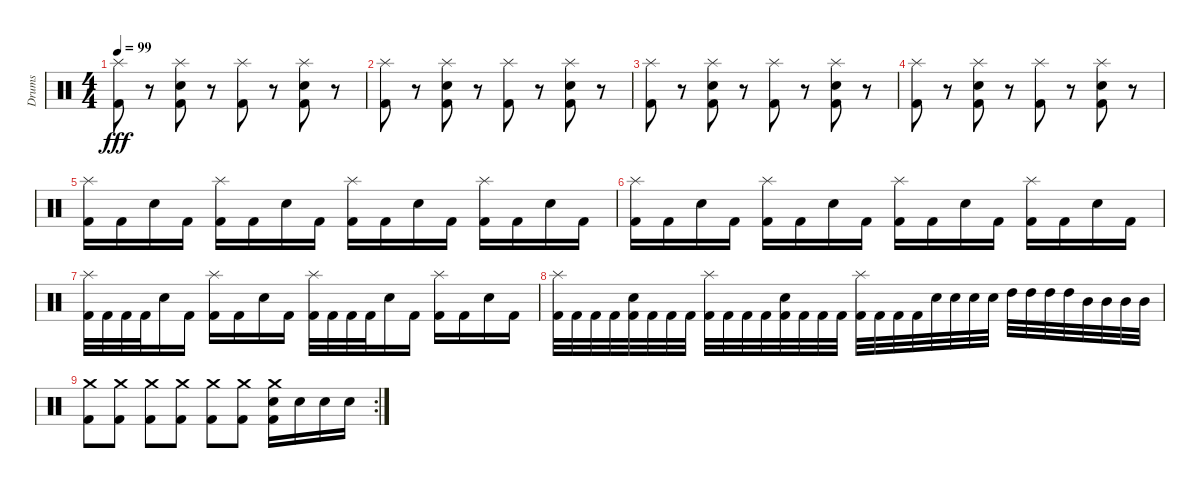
\track ("Drums" "Drums") {instrument percussion}
\staff {score}
\articulation defaults
\ts (4 4)
\tempo 99
\clef neutral
\ks c
("Splash (hit)" "Kick (hit) 2").8{dy fff} r.8 ("Splash (hit)" "Snare (hit) 2" "Kick (hit) 2").8 r.8 ("Splash (hit)" "Kick (hit) 2").8 r.8 ("Splash (hit)" "Snare (hit) 2" "Kick (hit) 2").8 r.8 |
("Splash (hit)" "Kick (hit) 2").8 r.8 ("Splash (hit)" "Snare (hit) 2" "Kick (hit) 2").8 r.8 ("Splash (hit)" "Kick (hit) 2").8 r.8 ("Splash (hit)" "Snare (hit) 2" "Kick (hit) 2").8 r.8 |
("Splash (hit)" "Kick (hit) 2").8 r.8 ("Splash (hit)" "Snare (hit) 2" "Kick (hit) 2").8 r.8 ("Splash (hit)" "Kick (hit) 2").8 r.8 ("Splash (hit)" "Snare (hit) 2" "Kick (hit) 2").8 r.8 |
("Splash (hit)" "Kick (hit) 2").8 r.8 ("Splash (hit)" "Snare (hit) 2" "Kick (hit) 2").8 r.8 ("Splash (hit)" "Kick (hit) 2").8 r.8 ("Splash (hit)" "Snare (hit) 2" "Kick (hit) 2").8 r.8 |
("Splash (hit)" "Kick (hit) 2").16 "Kick (hit) 2".16 "Snare (hit) 2".16 "Kick (hit) 2".16 ("Splash (hit)" "Kick (hit) 2").16 "Kick (hit) 2".16 "Snare (hit) 2".16 "Kick (hit) 2".16 ("Splash (hit)" "Kick (hit) 2").16 "Kick (hit) 2".16 "Snare (hit) 2".16 "Kick (hit) 2".16 ("Splash (hit)" "Kick (hit) 2").16 "Kick (hit) 2".16 "Snare (hit) 2".16 "Kick (hit) 2".16 |
("Splash (hit)" "Kick (hit) 2").16 "Kick (hit) 2".16 "Snare (hit) 2".16 "Kick (hit) 2".16 ("Splash (hit)" "Kick (hit) 2").16 "Kick (hit) 2".16 "Snare (hit) 2".16 "Kick (hit) 2".16 ("Splash (hit)" "Kick (hit) 2").16 "Kick (hit) 2".16 "Snare (hit) 2".16 "Kick (hit) 2".16 ("Splash (hit)" "Kick (hit) 2").16 "Kick (hit) 2".16 "Snare (hit) 2".16 "Kick (hit) 2".16 |
("Splash (hit)" "Kick (hit) 2").32 "Kick (hit) 2".32 "Kick (hit) 2".32 "Kick (hit) 2".32 "Snare (hit) 2".16 "Kick (hit) 2".16 ("Splash (hit)" "Kick (hit) 2").16 "Kick (hit) 2".16 "Snare (hit) 2".16 "Kick (hit) 2".16 ("Splash (hit)" "Kick (hit) 2").32 "Kick (hit) 2".32 "Kick (hit) 2".32 "Kick (hit) 2".32 "Snare (hit) 2".16 "Kick (hit) 2".16 ("Splash (hit)" "Kick (hit) 2").16 "Kick (hit) 2".16 "Snare (hit) 2".16 "Kick (hit) 2".16 |
("Splash (hit)" "Kick (hit) 2").32 "Kick (hit) 2".32 "Kick (hit) 2".32 "Kick (hit) 2".32 ("Snare (hit) 2" "Kick (hit) 2").32 "Kick (hit) 2".32 "Kick (hit) 2".32 "Kick (hit) 2".32 ("Splash (hit)" "Kick (hit) 2").32 "Kick (hit) 2".32 "Kick (hit) 2".32 "Kick (hit) 2".32 ("Snare (hit) 2" "Kick (hit) 2").32 "Kick (hit) 2".32 "Kick (hit) 2".32 "Kick (hit) 2".32 ("Splash (hit)" "Kick (hit) 2").32 "Kick (hit) 2".32 "Kick (hit) 2".32 "Kick (hit) 2".32 "Snare (hit) 2".32 "Snare (hit) 2".32 "Snare (hit) 2".32 "Snare (hit) 2".32 "High Tom (hit)".32 "High Tom (hit)".32 "High Tom (hit)".32 "High Tom (hit)".32 "Mid Tom (hit)".32 "Mid Tom (hit)".32 "Mid Tom (hit)".32 "Mid Tom (hit)".32 |
\rc 2
("Crash medium (hit)" "Kick (hit) 2").8 ("Crash medium (hit)" "Kick (hit) 2").8 ("Crash medium (hit)" "Kick (hit) 2").8 ("Crash medium (hit)" "Kick (hit) 2").8 ("Crash medium (hit)" "Kick (hit) 2").8 ("Crash medium (hit)" "Kick (hit) 2").8 ("Snare (hit) 2" "Crash medium (hit)" "Kick (hit) 2").16 "Snare (hit) 2".16 "Snare (hit) 2".16 "Snare (hit) 2".16
